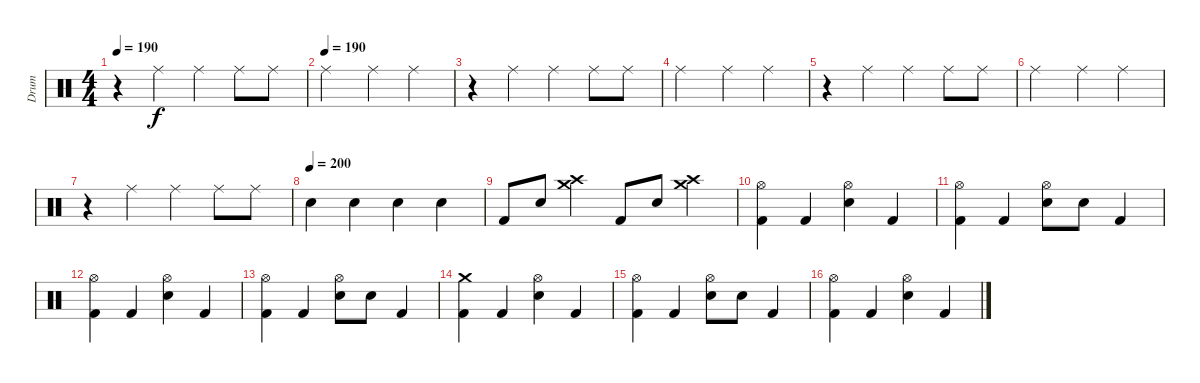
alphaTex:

\track ("Drum" "Drum") {instrument percussion}
\staff {score}
\articulation defaults
\ts (4 4)
\tempo 190
\clef neutral
\ks c
r.4{dy f} "Ride (middle)".4 "Ride (middle)".4 "Ride (middle)".8 "Ride (middle)".8 |
\tempo (190)
"Ride (middle)".2 "Ride (middle)".4 "Ride (middle)".4 |
r.4 "Ride (middle)".4 "Ride (middle)".4 "Ride (middle)".8 "Ride (middle)".8 |
"Ride (middle)".2 "Ride (middle)".4 "Ride (middle)".4 |
r.4 "Ride (middle)".4 "Ride (middle)".4 "Ride (middle)".8 "Ride (middle)".8 |
"Ride (middle)".2 "Ride (middle)".4 "Ride (middle)".4 |
r.4 "Ride (middle)".4 "Ride (middle)".4 "Ride (middle)".8 "Ride (middle)".8 |
\tempo (200)
"Electric Snare (hit)".4 "Electric Snare (hit)".4 "Electric Snare (hit)".4 "Electric Snare (hit)".4 |
"Kick (hit) 2".8 "Electric Snare (hit)".8 ("Crash medium (hit)" "Crash high (hit)").4 "Kick (hit) 2".8 "Electric Snare (hit)".8 ("Crash medium (hit)" "Crash high (hit)").4 |
("Hi-Hat (open)" "Kick (hit) 2").4 "Kick (hit) 2".4 ("Electric Snare (hit)" "Hi-Hat (open)").4 "Kick (hit) 2".4 |
("Hi-Hat (open)" "Kick (hit) 2").4 "Kick (hit) 2".4 ("Electric Snare (hit)" "Hi-Hat (open)").8 "Electric Snare (hit)".8 "Kick (hit) 2".4 |
("Hi-Hat (open)" "Kick (hit) 2").4 "Kick (hit) 2".4 ("Electric Snare (hit)" "Hi-Hat (open)").4 "Kick (hit) 2".4 |
("Hi-Hat (open)" "Kick (hit) 2").4 "Kick (hit) 2".4 ("Electric Snare (hit)" "Hi-Hat (open)").8 "Electric Snare (hit)".8 "Kick (hit) 2".4 |
("Crash medium (hit)" "Kick (hit) 2").4 "Kick (hit) 2".4 ("Electric Snare (hit)" "Hi-Hat (open)").4 "Kick (hit) 2".4 |
("Hi-Hat (open)" "Kick (hit) 2").4 "Kick (hit) 2".4 ("Electric Snare (hit)" "Hi-Hat (open)").8 "Electric Snare (hit)".8 "Kick (hit) 2".4 |
("Hi-Hat (open)" "Kick (hit) 2").4 "Kick (hit) 2".4 ("Electric Snare (hit)" "Hi-Hat (open)").4 "Kick (hit) 2".4
